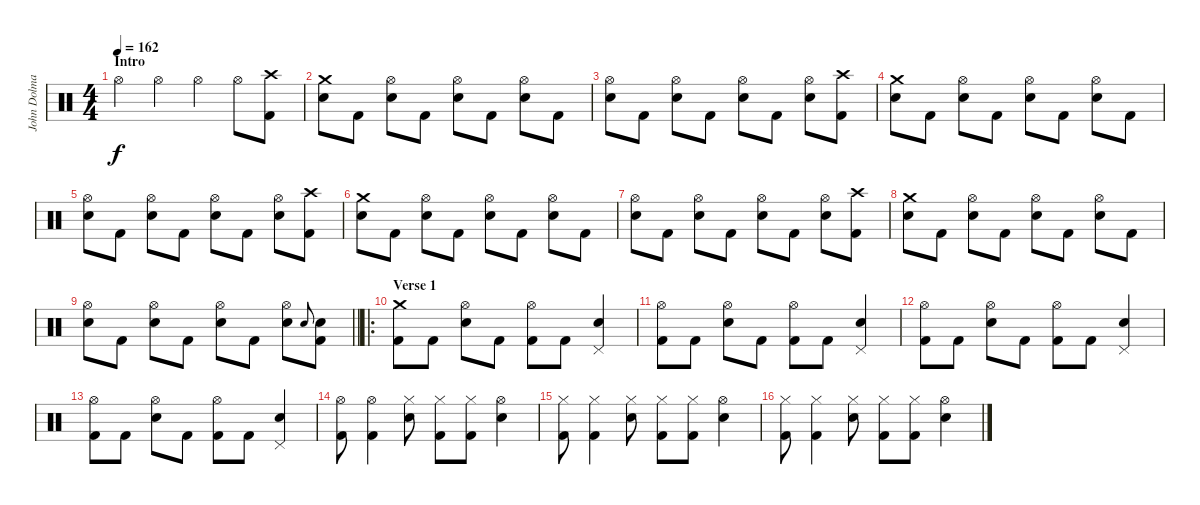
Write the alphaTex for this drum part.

\track ("John Dolmayan" "John Dolma") {instrument percussion}
\staff {score}
\articulation defaults
\ts (4 4)
\section ("" "Intro")
\tempo 162
\clef neutral
\ks c "Hi-Hat (open)".4{dy f} "Hi-Hat (open)".4 "Hi-Hat (open)".4 "Hi-Hat (open)".8
("Crash high (hit)" "Kick (hit) 2").8 |
("Crash medium (hit)" "Electric Snare (hit)").8 "Kick (hit) 2".8 ("Hi-Hat (open)" "Electric Snare (hit)").8 "Kick (hit) 2".8 ("Hi-Hat (open)" "Electric Snare (hit)").8 "Kick (hit) 2".8 ("Hi-Hat (open)" "Electric Snare (hit)").8 "Kick (hit) 2".8 |
("Hi-Hat (open)" "Electric Snare (hit)").8 "Kick (hit) 2".8 ("Hi-Hat (open)" "Electric Snare (hit)").8 "Kick (hit) 2".8 ("Hi-Hat (open)" "Electric Snare (hit)").8 "Kick (hit) 2".8 ("Hi-Hat (open)" "Electric Snare (hit)").8 ("Crash high (hit)" "Kick (hit) 2").8 |
("Crash medium (hit)" "Electric Snare (hit)").8 "Kick (hit) 2".8 ("Hi-Hat (open)" "Electric Snare (hit)").8 "Kick (hit) 2".8 ("Hi-Hat (open)" "Electric Snare (hit)").8 "Kick (hit) 2".8 ("Hi-Hat (open)" "Electric Snare (hit)").8 "Kick (hit) 2".8 |
("Hi-Hat (open)" "Electric Snare (hit)").8 "Kick (hit) 2".8 ("Hi-Hat (open)" "Electric Snare (hit)").8 "Kick (hit) 2".8 ("Hi-Hat (open)" "Electric Snare (hit)").8 "Kick (hit) 2".8 ("Hi-Hat (open)" "Electric Snare (hit)").8 ("Crash high (hit)" "Kick (hit) 2").8 |
("Crash medium (hit)" "Electric Snare (hit)").8 "Kick (hit) 2".8 ("Hi-Hat (open)" "Electric Snare (hit)").8 "Kick (hit) 2".8 ("Hi-Hat (open)" "Electric Snare (hit)").8 "Kick (hit) 2".8 ("Hi-Hat (open)" "Electric Snare (hit)").8 "Kick (hit) 2".8 |
("Hi-Hat (open)" "Electric Snare (hit)").8 "Kick (hit) 2".8 ("Hi-Hat (open)" "Electric Snare (hit)").8 "Kick (hit) 2".8 ("Hi-Hat (open)" "Electric Snare (hit)").8 "Kick (hit) 2".8 ("Hi-Hat (open)" "Electric Snare (hit)").8 ("Crash high (hit)" "Kick (hit) 2").8 |
("Crash medium (hit)" "Electric Snare (hit)").8 "Kick (hit) 2".8 ("Hi-Hat (open)" "Electric Snare (hit)").8 "Kick (hit) 2".8 ("Hi-Hat (open)" "Electric Snare (hit)").8 "Kick (hit) 2".8 ("Hi-Hat (open)" "Electric Snare (hit)").8 "Kick (hit) 2".8 |
\barLineRight lightlight
("Hi-Hat (open)" "Electric Snare (hit)").8 "Kick (hit) 2".8 ("Hi-Hat (open)" "Electric Snare (hit)").8 "Kick (hit) 2".8 ("Hi-Hat (open)" "Electric Snare (hit)").8 "Kick (hit) 2".8 ("Hi-Hat (open)" "Electric Snare (hit)").8 "Electric Snare (hit)".8{gr onbeat} ("Electric Snare (hit)" "Kick (hit) 2").8 |
\ro
\section ("" "Verse 1")
("Crash medium (hit)" "Kick (hit) 2").8 "Kick (hit) 2".8 ("Hi-Hat (open)" "Electric Snare (hit)").8 "Kick (hit) 2".8 ("Hi-Hat (open)" "Kick (hit) 2").8 "Kick (hit) 2".8 ("Pedal Hi-Hat (hit)" "Electric Snare (hit)").4 |
("Hi-Hat (open)" "Kick (hit) 2").8 "Kick (hit) 2".8 ("Hi-Hat (open)" "Electric Snare (hit)").8 "Kick (hit) 2".8 ("Hi-Hat (open)" "Kick (hit) 2").8 "Kick (hit) 2".8 ("Pedal Hi-Hat (hit)" "Electric Snare (hit)").4 |
("Hi-Hat (open)" "Kick (hit) 2").8 "Kick (hit) 2".8 ("Hi-Hat (open)" "Electric Snare (hit)").8 "Kick (hit) 2".8 ("Hi-Hat (open)" "Kick (hit) 2").8 "Kick (hit) 2".8 ("Pedal Hi-Hat (hit)" "Electric Snare (hit)").4 |
("Hi-Hat (open)" "Kick (hit) 2").8 "Kick (hit) 2".8 ("Hi-Hat (open)" "Electric Snare (hit)").8 "Kick (hit) 2".8 ("Hi-Hat (open)" "Kick (hit) 2").8 "Kick (hit) 2".8 ("Pedal Hi-Hat (hit)" "Electric Snare (hit)").4 |
("Hi-Hat (open)" "Kick (hit) 2").8 ("Hi-Hat (open)" "Kick (hit) 2").4 ("Hi-Hat (closed)" "Electric Snare (hit)").8 ("Hi-Hat (closed)" "Kick (hit) 2").8 ("Hi-Hat (closed)" "Kick (hit) 2").8 ("Hi-Hat (open)" "Electric Snare (hit)").4 |
("Hi-Hat (closed)" "Kick (hit) 2").8 ("Hi-Hat (closed)" "Kick (hit) 2").4 ("Hi-Hat (closed)" "Electric Snare (hit)").8 ("Hi-Hat (closed)" "Kick (hit) 2").8 ("Hi-Hat (closed)" "Kick (hit) 2").8 ("Hi-Hat (open)" "Electric Snare (hit)").4 |
("Hi-Hat (closed)" "Kick (hit) 2").8 ("Hi-Hat (closed)" "Kick (hit) 2").4 ("Hi-Hat (closed)" "Electric Snare (hit)").8 ("Hi-Hat (closed)" "Kick (hit) 2").8 ("Hi-Hat (closed)" "Kick (hit) 2").8 ("Hi-Hat (open)" "Electric Snare (hit)").4
